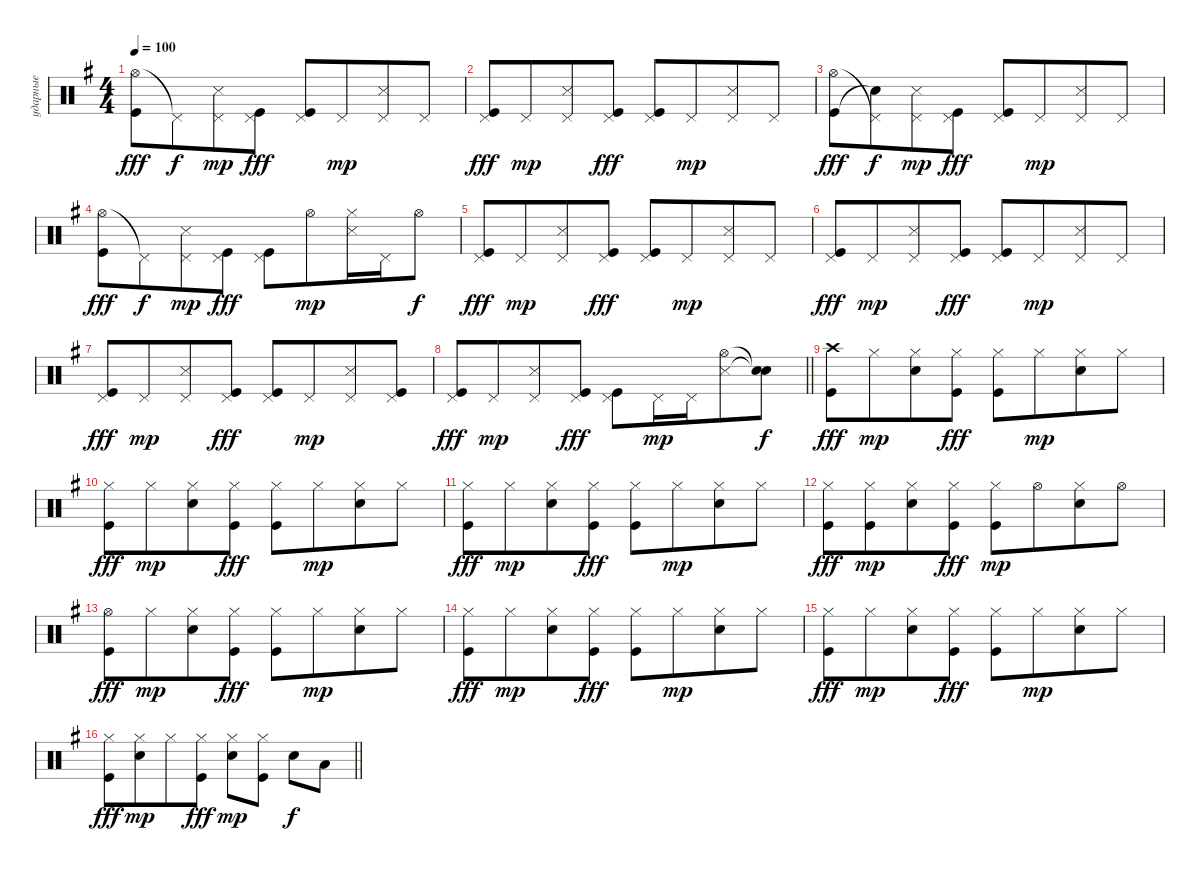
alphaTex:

\track ("ударные" "ударные") {instrument percussion}
\staff {score}
\articulation defaults
\ts (4 4)
\tempo 100
\clef neutral
\ks eminor
("Hi-Hat (open)" "Kick (hit)").8{dy fff} "Pedal Hi-Hat (hit)"{t}.8{dy f beam merge} ("Pedal Hi-Hat (hit)" "Snare (side stick) 3").8{dy mp} ("Pedal Hi-Hat (hit)" "Kick (hit)").8{dy fff} ("Pedal Hi-Hat (hit)" "Kick (hit)").8 "Pedal Hi-Hat (hit)".8{dy mp beam merge} ("Pedal Hi-Hat (hit)" "Snare (side stick) 3").8 "Pedal Hi-Hat (hit)".8 |
("Pedal Hi-Hat (hit)" "Kick (hit)").8{dy fff} "Pedal Hi-Hat (hit)".8{dy mp beam merge} ("Pedal Hi-Hat (hit)" "Snare (side stick) 3").8 ("Pedal Hi-Hat (hit)" "Kick (hit)").8{dy fff} ("Pedal Hi-Hat (hit)" "Kick (hit)").8 "Pedal Hi-Hat (hit)".8{dy mp beam merge} ("Pedal Hi-Hat (hit)" "Snare (side stick) 3").8 "Pedal Hi-Hat (hit)".8 |
("Hi-Hat (open)" "Kick (hit)").8{dy fff} ("Pedal Hi-Hat (hit)"{t} "Snare (hit)"{t}).8{dy f beam merge} ("Pedal Hi-Hat (hit)" "Snare (side stick) 3").8{dy mp} ("Pedal Hi-Hat (hit)" "Kick (hit)").8{dy fff} ("Pedal Hi-Hat (hit)" "Kick (hit)").8 "Pedal Hi-Hat (hit)".8{dy mp beam merge} ("Pedal Hi-Hat (hit)" "Snare (side stick) 3").8 "Pedal Hi-Hat (hit)".8 |
("Hi-Hat (open)" "Kick (hit)").8{dy fff} "Pedal Hi-Hat (hit)"{t}.8{dy f beam merge} ("Pedal Hi-Hat (hit)" "Snare (side stick) 3").8{dy mp} ("Pedal Hi-Hat (hit)" "Kick (hit)").8{dy fff} ("Pedal Hi-Hat (hit)" "Kick (hit)").8 "Hi-Hat (open)".8{dy mp beam merge} ("Hi-Hat (closed)" "Snare (side stick) 3").16 "Pedal Hi-Hat (hit)".16 "Hi-Hat (open)".8{dy f} |
("Pedal Hi-Hat (hit)" "Kick (hit)").8{dy fff} "Pedal Hi-Hat (hit)".8{dy mp beam merge} ("Pedal Hi-Hat (hit)" "Snare (side stick) 3").8 ("Pedal Hi-Hat (hit)" "Kick (hit)").8{dy fff} ("Pedal Hi-Hat (hit)" "Kick (hit)").8 "Pedal Hi-Hat (hit)".8{dy mp beam merge} ("Pedal Hi-Hat (hit)" "Snare (side stick) 3").8 "Pedal Hi-Hat (hit)".8 |
("Pedal Hi-Hat (hit)" "Kick (hit)").8{dy fff} "Pedal Hi-Hat (hit)".8{dy mp beam merge} ("Pedal Hi-Hat (hit)" "Snare (side stick) 3").8 ("Pedal Hi-Hat (hit)" "Kick (hit)").8{dy fff} ("Pedal Hi-Hat (hit)" "Kick (hit)").8 "Pedal Hi-Hat (hit)".8{dy mp beam merge} ("Pedal Hi-Hat (hit)" "Snare (side stick) 3").8 "Pedal Hi-Hat (hit)".8 |
("Pedal Hi-Hat (hit)" "Kick (hit)").8{dy fff} "Pedal Hi-Hat (hit)".8{dy mp beam merge} ("Pedal Hi-Hat (hit)" "Snare (side stick) 3").8 ("Pedal Hi-Hat (hit)" "Kick (hit)").8{dy fff} ("Pedal Hi-Hat (hit)" "Kick (hit)").8 "Pedal Hi-Hat (hit)".8{dy mp beam merge} ("Pedal Hi-Hat (hit)" "Snare (side stick) 3").8 ("Pedal Hi-Hat (hit)" "Kick (hit)").8 |
\barLineRight lightlight
("Pedal Hi-Hat (hit)" "Kick (hit)").8{dy fff} "Pedal Hi-Hat (hit)".8{dy mp beam merge} ("Pedal Hi-Hat (hit)" "Snare (side stick) 3").8 ("Pedal Hi-Hat (hit)" "Kick (hit)").8{dy fff} ("Pedal Hi-Hat (hit)" "Kick (hit)").8 "Pedal Hi-Hat (hit)".16{dy mp} "Pedal Hi-Hat (hit)".16{beam merge} ("Hi-Hat (open)" "Snare (side stick) 3").8 ("Snare (hit)"{t} "Snare (hit)"{t}).8{dy f} |
\section ("" "")
("Crash high (hit)" "Kick (hit)").8{dy fff} "Hi-Hat (closed)".8{dy mp beam merge} ("Hi-Hat (closed)" "Snare (hit) 2").8 ("Hi-Hat (closed)" "Kick (hit)").8{dy fff} ("Hi-Hat (closed)" "Kick (hit)").8 "Hi-Hat (closed)".8{dy mp beam merge} ("Hi-Hat (closed)" "Snare (hit) 2").8 "Hi-Hat (closed)".8 |
("Hi-Hat (closed)" "Kick (hit)").8{dy fff} "Hi-Hat (closed)".8{dy mp beam merge} ("Hi-Hat (closed)" "Snare (hit) 2").8 ("Hi-Hat (closed)" "Kick (hit)").8{dy fff} ("Hi-Hat (closed)" "Kick (hit)").8 "Hi-Hat (closed)".8{dy mp beam merge} ("Hi-Hat (closed)" "Snare (hit) 2").8 "Hi-Hat (closed)".8 |
("Hi-Hat (closed)" "Kick (hit)").8{dy fff} "Hi-Hat (closed)".8{dy mp beam merge} ("Hi-Hat (closed)" "Snare (hit) 2").8 ("Hi-Hat (closed)" "Kick (hit)").8{dy fff} ("Hi-Hat (closed)" "Kick (hit)").8 "Hi-Hat (closed)".8{dy mp beam merge} ("Hi-Hat (closed)" "Snare (hit) 2").8 "Hi-Hat (closed)".8 |
("Hi-Hat (closed)" "Kick (hit)").8{dy fff} ("Hi-Hat (closed)" "Kick (hit)").8{dy mp beam merge} ("Hi-Hat (closed)" "Snare (hit) 2").8 ("Hi-Hat (closed)" "Kick (hit)").8{dy fff} ("Hi-Hat (closed)" "Kick (hit)").8{dy mp} "Hi-Hat (open)".8{beam merge} ("Hi-Hat (closed)" "Snare (hit) 2").8 "Hi-Hat (open)".8 |
("Hi-Hat (open)" "Kick (hit)").8{dy fff} "Hi-Hat (closed)".8{dy mp beam merge} ("Hi-Hat (closed)" "Snare (hit) 2").8 ("Hi-Hat (closed)" "Kick (hit)").8{dy fff} ("Hi-Hat (closed)" "Kick (hit)").8 "Hi-Hat (closed)".8{dy mp beam merge} ("Hi-Hat (closed)" "Snare (hit) 2").8 "Hi-Hat (closed)".8 |
("Hi-Hat (closed)" "Kick (hit)").8{dy fff} "Hi-Hat (closed)".8{dy mp beam merge} ("Hi-Hat (closed)" "Snare (hit) 2").8 ("Hi-Hat (closed)" "Kick (hit)").8{dy fff} ("Hi-Hat (closed)" "Kick (hit)").8 "Hi-Hat (closed)".8{dy mp beam merge} ("Hi-Hat (closed)" "Snare (hit) 2").8 "Hi-Hat (closed)".8 |
("Hi-Hat (closed)" "Kick (hit)").8{dy fff} "Hi-Hat (closed)".8{dy mp beam merge} ("Hi-Hat (closed)" "Snare (hit) 2").8 ("Hi-Hat (closed)" "Kick (hit)").8{dy fff} ("Hi-Hat (closed)" "Kick (hit)").8 "Hi-Hat (closed)".8{dy mp beam merge} ("Hi-Hat (closed)" "Snare (hit) 2").8 "Hi-Hat (closed)".8 |
\barLineRight lightlight
("Hi-Hat (closed)" "Kick (hit)").8{dy fff} ("Hi-Hat (closed)" "Snare (hit) 2").8{dy mp beam merge} "Hi-Hat (closed)".8 ("Hi-Hat (closed)" "Kick (hit)").8{dy fff} ("Hi-Hat (closed)" "Snare (hit) 2").8{dy mp} ("Hi-Hat (closed)" "Kick (hit)").8 "Snare (hit) 2".8{dy f} "Low Tom (hit)".8
